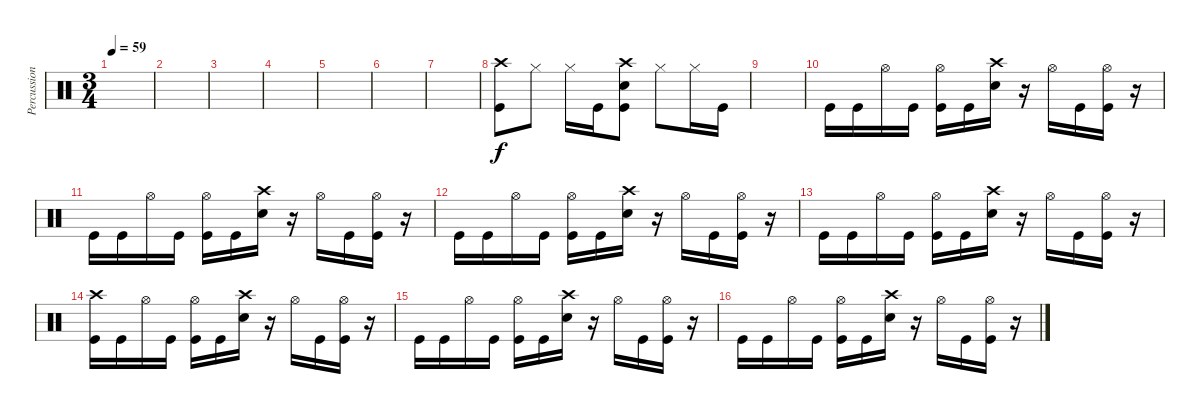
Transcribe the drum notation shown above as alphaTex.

\track ("Percussion" "Percussion") {instrument percussion}
\staff {score}
\articulation defaults
\ts (3 4)
\tempo 59
\clef neutral
\ks c
|
|
|
|
|
|
|
("Crash high (hit)" "Kick (hit)").8 "Hi-Hat (closed)".8 "Hi-Hat (closed)".16 "Kick (hit)".16 ("Crash high (hit)" "Electric Snare (hit)" "Kick (hit)").8 "Hi-Hat (closed)".8 "Hi-Hat (closed)".16 "Kick (hit)".16 |
|
"Kick (hit)".16 "Kick (hit)".16 "Hi-Hat (open)".16 "Kick (hit)".16 ("Hi-Hat (open)" "Kick (hit)").16 "Kick (hit)".16 ("Crash high (hit)" "Electric Snare (hit)").16 r.16 "Hi-Hat (open)".16 "Kick (hit)".16 ("Hi-Hat (open)" "Kick (hit)").16 r.16 |
"Kick (hit)".16 "Kick (hit)".16 "Hi-Hat (open)".16 "Kick (hit)".16 ("Hi-Hat (open)" "Kick (hit)").16 "Kick (hit)".16 ("Crash high (hit)" "Electric Snare (hit)").16 r.16 "Hi-Hat (open)".16 "Kick (hit)".16 ("Hi-Hat (open)" "Kick (hit)").16 r.16 |
"Kick (hit)".16 "Kick (hit)".16 "Hi-Hat (open)".16 "Kick (hit)".16 ("Hi-Hat (open)" "Kick (hit)").16 "Kick (hit)".16 ("Crash high (hit)" "Electric Snare (hit)").16 r.16 "Hi-Hat (open)".16 "Kick (hit)".16 ("Hi-Hat (open)" "Kick (hit)").16 r.16 |
"Kick (hit)".16 "Kick (hit)".16 "Hi-Hat (open)".16 "Kick (hit)".16 ("Hi-Hat (open)" "Kick (hit)").16 "Kick (hit)".16 ("Crash high (hit)" "Electric Snare (hit)").16 r.16 "Hi-Hat (open)".16 "Kick (hit)".16 ("Hi-Hat (open)" "Kick (hit)").16 r.16 |
("Crash high (hit)" "Kick (hit)").16 "Kick (hit)".16 "Hi-Hat (open)".16 "Kick (hit)".16 ("Hi-Hat (open)" "Kick (hit)").16 "Kick (hit)".16 ("Crash high (hit)" "Electric Snare (hit)").16 r.16 "Hi-Hat (open)".16 "Kick (hit)".16 ("Hi-Hat (open)" "Kick (hit)").16 r.16 |
"Kick (hit)".16 "Kick (hit)".16 "Hi-Hat (open)".16 "Kick (hit)".16 ("Hi-Hat (open)" "Kick (hit)").16 "Kick (hit)".16 ("Crash high (hit)" "Electric Snare (hit)").16 r.16 "Hi-Hat (open)".16 "Kick (hit)".16 ("Hi-Hat (open)" "Kick (hit)").16 r.16 |
"Kick (hit)".16 "Kick (hit)".16 "Hi-Hat (open)".16 "Kick (hit)".16 ("Hi-Hat (open)" "Kick (hit)").16 "Kick (hit)".16 ("Crash high (hit)" "Electric Snare (hit)").16 r.16 "Hi-Hat (open)".16 "Kick (hit)".16 ("Hi-Hat (open)" "Kick (hit)").16 r.16
